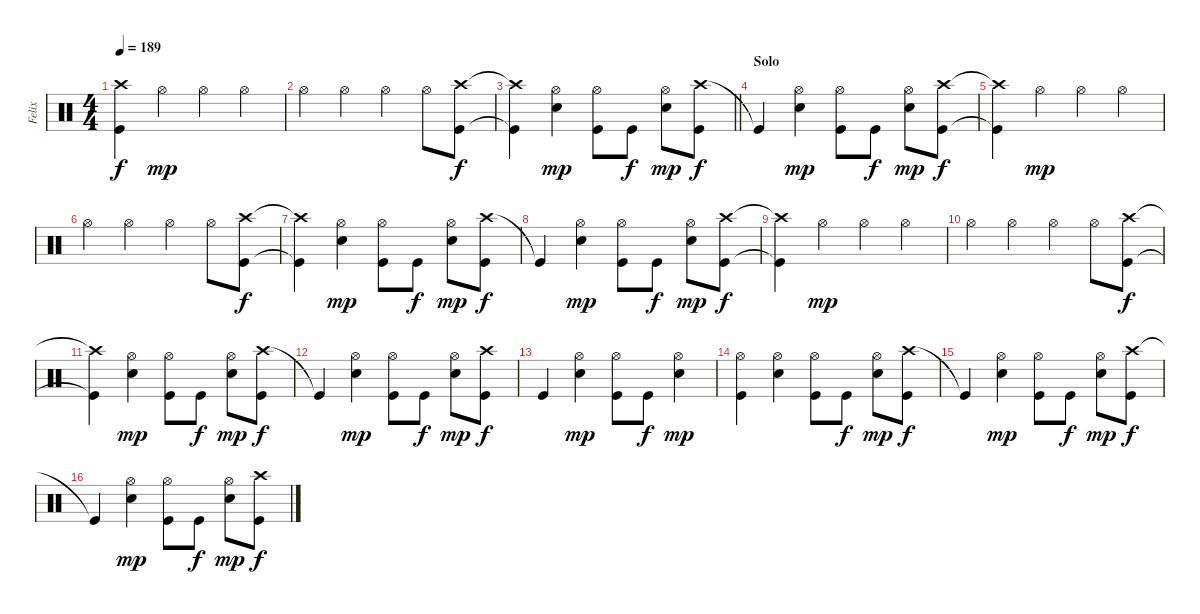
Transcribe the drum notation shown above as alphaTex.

\track ("Felix" "Felix") {instrument percussion}
\staff {score}
\articulation defaults
\ts (4 4)
\tempo 189
\clef neutral
\ks c
("Crash high (hit)"{t} "Kick (hit)"{t}).4{dy f} "Hi-Hat (open)".4{dy mp} "Hi-Hat (open)".4 "Hi-Hat (open)".4 |
"Hi-Hat (open)".4 "Hi-Hat (open)".4 "Hi-Hat (open)".4 "Hi-Hat (open)".8 ("Crash high (hit)" "Kick (hit)").8{dy f} |
\barLineRight lightlight
("Crash high (hit)"{t} "Kick (hit)"{t}).4 ("Hi-Hat (open)" "Snare (hit) 2").4{dy mp} ("Hi-Hat (open)" "Kick (hit)").8 "Kick (hit)".8{dy f} ("Hi-Hat (open)" "Snare (hit) 2").8{dy mp} ("Crash high (hit)" "Kick (hit)").8{dy f} |
\section ("" "Solo")
"Kick (hit)"{t}.4 ("Hi-Hat (open)" "Snare (hit) 2").4{dy mp} ("Hi-Hat (open)" "Kick (hit)").8 "Kick (hit)".8{dy f} ("Hi-Hat (open)" "Snare (hit) 2").8{dy mp} ("Crash high (hit)" "Kick (hit)").8{dy f} |
("Crash high (hit)"{t} "Kick (hit)"{t}).4 "Hi-Hat (open)".4{dy mp} "Hi-Hat (open)".4 "Hi-Hat (open)".4 |
"Hi-Hat (open)".4 "Hi-Hat (open)".4 "Hi-Hat (open)".4 "Hi-Hat (open)".8 ("Crash high (hit)" "Kick (hit)").8{dy f} |
("Crash high (hit)"{t} "Kick (hit)"{t}).4 ("Hi-Hat (open)" "Snare (hit) 2").4{dy mp} ("Hi-Hat (open)" "Kick (hit)").8 "Kick (hit)".8{dy f} ("Hi-Hat (open)" "Snare (hit) 2").8{dy mp} ("Crash high (hit)" "Kick (hit)").8{dy f} |
"Kick (hit)"{t}.4 ("Hi-Hat (open)" "Snare (hit) 2").4{dy mp} ("Hi-Hat (open)" "Kick (hit)").8 "Kick (hit)".8{dy f} ("Hi-Hat (open)" "Snare (hit) 2").8{dy mp} ("Crash high (hit)" "Kick (hit)").8{dy f} |
("Crash high (hit)"{t} "Kick (hit)"{t}).4 "Hi-Hat (open)".4{dy mp} "Hi-Hat (open)".4 "Hi-Hat (open)".4 |
"Hi-Hat (open)".4 "Hi-Hat (open)".4 "Hi-Hat (open)".4 "Hi-Hat (open)".8 ("Crash high (hit)" "Kick (hit)").8{dy f} |
("Crash high (hit)"{t} "Kick (hit)"{t}).4 ("Hi-Hat (open)" "Snare (hit) 2").4{dy mp} ("Hi-Hat (open)" "Kick (hit)").8 "Kick (hit)".8{dy f} ("Hi-Hat (open)" "Snare (hit) 2").8{dy mp} ("Crash high (hit)" "Kick (hit)").8{dy f} |
"Kick (hit)"{t}.4 ("Hi-Hat (open)" "Snare (hit) 2").4{dy mp} ("Hi-Hat (open)" "Kick (hit)").8 "Kick (hit)".8{dy f} ("Hi-Hat (open)" "Snare (hit) 2").8{dy mp} ("Crash high (hit)" "Kick (hit)").8{dy f} |
"Kick (hit)".4 ("Hi-Hat (open)" "Snare (hit) 2").4{dy mp} ("Hi-Hat (open)" "Kick (hit)").8 "Kick (hit)".8{dy f} ("Hi-Hat (open)" "Snare (hit) 2").4{dy mp} |
("Hi-Hat (open)" "Kick (hit)").4 ("Hi-Hat (open)" "Snare (hit) 2").4 ("Hi-Hat (open)" "Kick (hit)").8 "Kick (hit)".8{dy f} ("Hi-Hat (open)" "Snare (hit) 2").8{dy mp} ("Crash high (hit)" "Kick (hit)").8{dy f} |
"Kick (hit)"{t}.4 ("Hi-Hat (open)" "Snare (hit) 2").4{dy mp} ("Hi-Hat (open)" "Kick (hit)").8 "Kick (hit)".8{dy f} ("Hi-Hat (open)" "Snare (hit) 2").8{dy mp} ("Crash high (hit)" "Kick (hit)").8{dy f} |
"Kick (hit)"{t}.4 ("Hi-Hat (open)" "Snare (hit) 2").4{dy mp} ("Hi-Hat (open)" "Kick (hit)").8 "Kick (hit)".8{dy f} ("Hi-Hat (open)" "Snare (hit) 2").8{dy mp} ("Crash high (hit)" "Kick (hit)").8{dy f}
